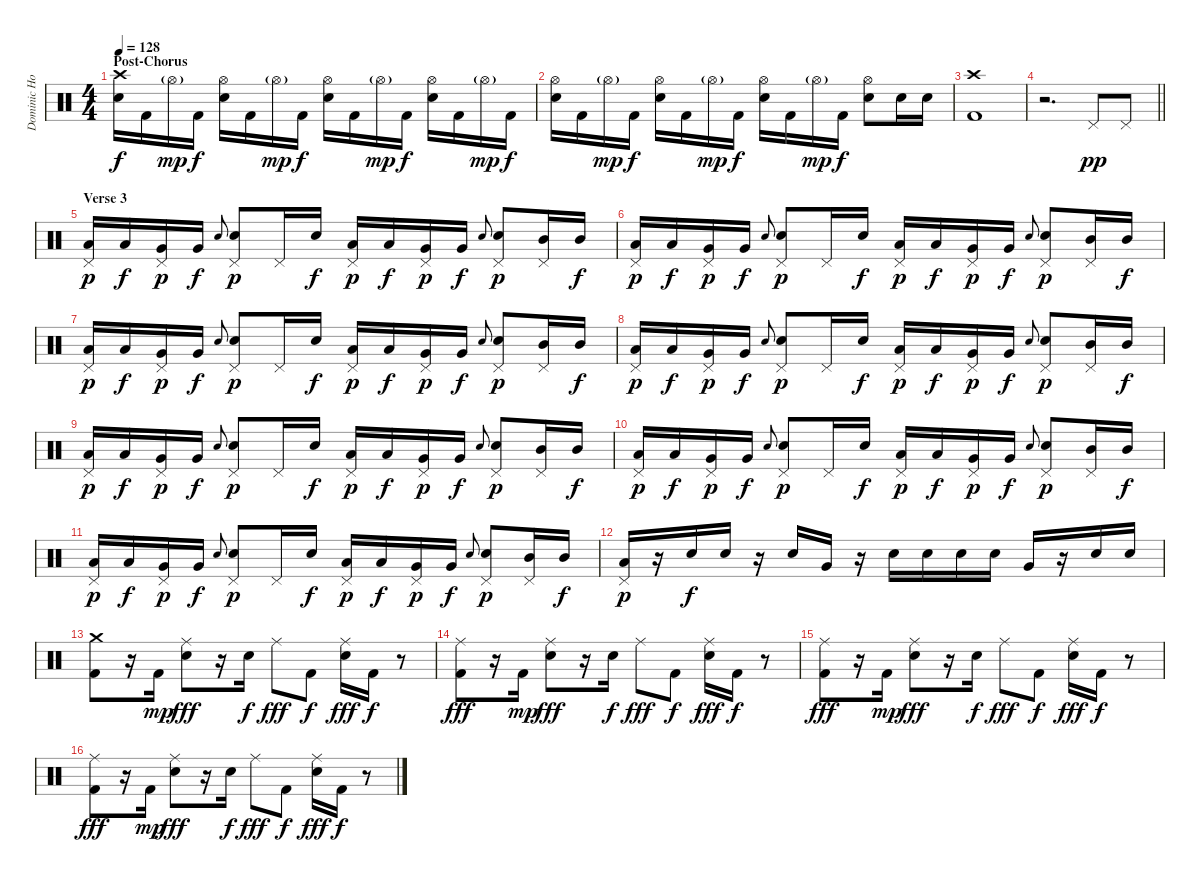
\track ("Dominic Howard (Drums)" "Dominic Ho") {instrument percussion}
\staff {score}
\articulation defaults
\ts (4 4)
\section ("" "Post-Chorus")
\tempo 128
\clef neutral
\ks c
("Crash high (hit)" "Electric Snare (hit)").16{dy f} "Kick (hit) 2".16 "Hi-Hat (open)"{g}.16{dy mp} "Kick (hit) 2".16{dy f} ("Hi-Hat (open)" "Electric Snare (hit)").16 "Kick (hit) 2".16 "Hi-Hat (open)"{g}.16{dy mp} "Kick (hit) 2".16{dy f} ("Hi-Hat (open)" "Electric Snare (hit)").16 "Kick (hit) 2".16 "Hi-Hat (open)"{g}.16{dy mp} "Kick (hit) 2".16{dy f} ("Hi-Hat (open)" "Electric Snare (hit)").16 "Kick (hit) 2".16 "Hi-Hat (open)"{g}.16{dy mp} "Kick (hit) 2".16{dy f} |
("Hi-Hat (open)" "Electric Snare (hit)").16 "Kick (hit) 2".16 "Hi-Hat (open)"{g}.16{dy mp} "Kick (hit) 2".16{dy f} ("Hi-Hat (open)" "Electric Snare (hit)").16 "Kick (hit) 2".16 "Hi-Hat (open)"{g}.16{dy mp} "Kick (hit) 2".16{dy f} ("Hi-Hat (open)" "Electric Snare (hit)").16 "Kick (hit) 2".16 "Hi-Hat (open)"{g}.16{dy mp} "Kick (hit) 2".16{dy f} ("Hi-Hat (open)" "Electric Snare (hit)").8 "Electric Snare (hit)".16 "Electric Snare (hit)".16 |
("Crash high (hit)" "Kick (hit) 2").1 |
\barLineRight lightlight
r.2{d} "Pedal Hi-Hat (hit)".8{dy pp} "Pedal Hi-Hat (hit)".8 |
\section ("" "Verse 3")
("Pedal Hi-Hat (hit)" "Low Tom (hit)").16{dy p} "Low Tom (hit)".16{dy f} ("Pedal Hi-Hat (hit)" "Very Low Tom (hit)").16{dy p} "Very Low Tom (hit)".16{dy f} "Electric Snare (hit)".8{gr onbeat} ("Pedal Hi-Hat (hit)" "Electric Snare (hit)").8{dy p} "Pedal Hi-Hat (hit)".16 "Electric Snare (hit)".16{dy f} ("Pedal Hi-Hat (hit)" "Low Tom (hit)").16{dy p} "Low Tom (hit)".16{dy f} ("Pedal Hi-Hat (hit)" "Very Low Tom (hit)").16{dy p} "Very Low Tom (hit)".16{dy f} "Electric Snare (hit)".8{gr onbeat} ("Pedal Hi-Hat (hit)" "Electric Snare (hit)").8{dy p} ("Pedal Hi-Hat (hit)" "Mid Tom (hit)").16 "Mid Tom (hit)".16{dy f} |
("Pedal Hi-Hat (hit)" "Low Tom (hit)").16{dy p} "Low Tom (hit)".16{dy f} ("Pedal Hi-Hat (hit)" "Very Low Tom (hit)").16{dy p} "Very Low Tom (hit)".16{dy f} "Electric Snare (hit)".8{gr onbeat} ("Pedal Hi-Hat (hit)" "Electric Snare (hit)").8{dy p} "Pedal Hi-Hat (hit)".16 "Electric Snare (hit)".16{dy f} ("Pedal Hi-Hat (hit)" "Low Tom (hit)").16{dy p} "Low Tom (hit)".16{dy f} ("Pedal Hi-Hat (hit)" "Very Low Tom (hit)").16{dy p} "Very Low Tom (hit)".16{dy f} "Electric Snare (hit)".8{gr onbeat} ("Pedal Hi-Hat (hit)" "Electric Snare (hit)").8{dy p} ("Pedal Hi-Hat (hit)" "Mid Tom (hit)").16 "Mid Tom (hit)".16{dy f} |
("Pedal Hi-Hat (hit)" "Low Tom (hit)").16{dy p} "Low Tom (hit)".16{dy f} ("Pedal Hi-Hat (hit)" "Very Low Tom (hit)").16{dy p} "Very Low Tom (hit)".16{dy f} "Electric Snare (hit)".8{gr onbeat} ("Pedal Hi-Hat (hit)" "Electric Snare (hit)").8{dy p} "Pedal Hi-Hat (hit)".16 "Electric Snare (hit)".16{dy f} ("Pedal Hi-Hat (hit)" "Low Tom (hit)").16{dy p} "Low Tom (hit)".16{dy f} ("Pedal Hi-Hat (hit)" "Very Low Tom (hit)").16{dy p} "Very Low Tom (hit)".16{dy f} "Electric Snare (hit)".8{gr onbeat} ("Pedal Hi-Hat (hit)" "Electric Snare (hit)").8{dy p} ("Pedal Hi-Hat (hit)" "Mid Tom (hit)").16 "Mid Tom (hit)".16{dy f} |
("Pedal Hi-Hat (hit)" "Low Tom (hit)").16{dy p} "Low Tom (hit)".16{dy f} ("Pedal Hi-Hat (hit)" "Very Low Tom (hit)").16{dy p} "Very Low Tom (hit)".16{dy f} "Electric Snare (hit)".8{gr onbeat} ("Pedal Hi-Hat (hit)" "Electric Snare (hit)").8{dy p} "Pedal Hi-Hat (hit)".16 "Electric Snare (hit)".16{dy f} ("Pedal Hi-Hat (hit)" "Low Tom (hit)").16{dy p} "Low Tom (hit)".16{dy f} ("Pedal Hi-Hat (hit)" "Very Low Tom (hit)").16{dy p} "Very Low Tom (hit)".16{dy f} "Electric Snare (hit)".8{gr onbeat} ("Pedal Hi-Hat (hit)" "Electric Snare (hit)").8{dy p} ("Pedal Hi-Hat (hit)" "Mid Tom (hit)").16 "Mid Tom (hit)".16{dy f} |
("Pedal Hi-Hat (hit)" "Low Tom (hit)").16{dy p} "Low Tom (hit)".16{dy f} ("Pedal Hi-Hat (hit)" "Very Low Tom (hit)").16{dy p} "Very Low Tom (hit)".16{dy f} "Electric Snare (hit)".8{gr onbeat} ("Pedal Hi-Hat (hit)" "Electric Snare (hit)").8{dy p} "Pedal Hi-Hat (hit)".16 "Electric Snare (hit)".16{dy f} ("Pedal Hi-Hat (hit)" "Low Tom (hit)").16{dy p} "Low Tom (hit)".16{dy f} ("Pedal Hi-Hat (hit)" "Very Low Tom (hit)").16{dy p} "Very Low Tom (hit)".16{dy f} "Electric Snare (hit)".8{gr onbeat} ("Pedal Hi-Hat (hit)" "Electric Snare (hit)").8{dy p} ("Pedal Hi-Hat (hit)" "Mid Tom (hit)").16 "Mid Tom (hit)".16{dy f} |
("Pedal Hi-Hat (hit)" "Low Tom (hit)").16{dy p} "Low Tom (hit)".16{dy f} ("Pedal Hi-Hat (hit)" "Very Low Tom (hit)").16{dy p} "Very Low Tom (hit)".16{dy f} "Electric Snare (hit)".8{gr onbeat} ("Pedal Hi-Hat (hit)" "Electric Snare (hit)").8{dy p} "Pedal Hi-Hat (hit)".16 "Electric Snare (hit)".16{dy f} ("Pedal Hi-Hat (hit)" "Low Tom (hit)").16{dy p} "Low Tom (hit)".16{dy f} ("Pedal Hi-Hat (hit)" "Very Low Tom (hit)").16{dy p} "Very Low Tom (hit)".16{dy f} "Electric Snare (hit)".8{gr onbeat} ("Pedal Hi-Hat (hit)" "Electric Snare (hit)").8{dy p} ("Pedal Hi-Hat (hit)" "Mid Tom (hit)").16 "Mid Tom (hit)".16{dy f} |
("Pedal Hi-Hat (hit)" "Low Tom (hit)").16{dy p} "Low Tom (hit)".16{dy f} ("Pedal Hi-Hat (hit)" "Very Low Tom (hit)").16{dy p} "Very Low Tom (hit)".16{dy f} "Electric Snare (hit)".8{gr onbeat} ("Pedal Hi-Hat (hit)" "Electric Snare (hit)").8{dy p} "Pedal Hi-Hat (hit)".16 "Electric Snare (hit)".16{dy f} ("Pedal Hi-Hat (hit)" "Low Tom (hit)").16{dy p} "Low Tom (hit)".16{dy f} ("Pedal Hi-Hat (hit)" "Very Low Tom (hit)").16{dy p} "Very Low Tom (hit)".16{dy f} "Electric Snare (hit)".8{gr onbeat} ("Pedal Hi-Hat (hit)" "Electric Snare (hit)").8{dy p} ("Pedal Hi-Hat (hit)" "Mid Tom (hit)").16 "Mid Tom (hit)".16{dy f} |
("Pedal Hi-Hat (hit)" "Low Tom (hit)").16{dy p} r.16 "Electric Snare (hit)".16{dy f} "Electric Snare (hit)".16 r.16 "Electric Snare (hit)".16 "Very Low Tom (hit)".16 r.16 "Electric Snare (hit)".16 "Electric Snare (hit)".16 "Electric Snare (hit)".16 "Electric Snare (hit)".16 "Very Low Tom (hit)".16 r.16 "Electric Snare (hit)".16 "Electric Snare (hit)".16 |
("Crash medium (hit)" "Kick (hit) 2").8 r.16 "Kick (hit) 2".16{dy mp} ("Ride (middle)" "Electric Snare (hit)").8{dy fff} r.16 "Electric Snare (hit)".16{dy f} "Ride (middle)".8{dy fff} "Kick (hit) 2".8{dy f} ("Ride (middle)" "Electric Snare (hit)").16{dy fff} "Kick (hit) 2".16{dy f} r.8 |
("Ride (middle)" "Kick (hit) 2").8{dy fff} r.16 "Kick (hit) 2".16{dy mp} ("Ride (middle)" "Electric Snare (hit)").8{dy fff} r.16 "Electric Snare (hit)".16{dy f} "Ride (middle)".8{dy fff} "Kick (hit) 2".8{dy f} ("Ride (middle)" "Electric Snare (hit)").16{dy fff} "Kick (hit) 2".16{dy f} r.8 |
("Ride (middle)" "Kick (hit) 2").8{dy fff} r.16 "Kick (hit) 2".16{dy mp} ("Ride (middle)" "Electric Snare (hit)").8{dy fff} r.16 "Electric Snare (hit)".16{dy f} "Ride (middle)".8{dy fff} "Kick (hit) 2".8{dy f} ("Ride (middle)" "Electric Snare (hit)").16{dy fff} "Kick (hit) 2".16{dy f} r.8 |
("Ride (middle)" "Kick (hit) 2").8{dy fff} r.16 "Kick (hit) 2".16{dy mp} ("Ride (middle)" "Electric Snare (hit)").8{dy fff} r.16 "Electric Snare (hit)".16{dy f} "Ride (middle)".8{dy fff} "Kick (hit) 2".8{dy f} ("Ride (middle)" "Electric Snare (hit)").16{dy fff} "Kick (hit) 2".16{dy f} r.8
